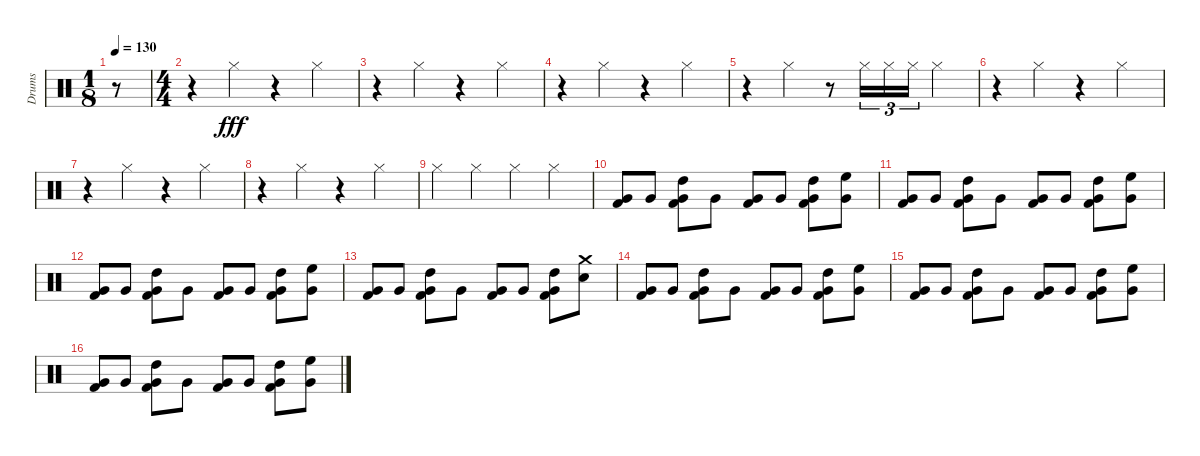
\track ("Drums" "Drums") {instrument percussion}
\staff {score}
\articulation defaults
\ts (1 8)
\tempo 130
\clef neutral
\ks c
r.8{dy fff} |
\ts (4 4)
r.4 "Hi-Hat (closed)".4 r.4 "Hi-Hat (closed)".4 |
r.4 "Hi-Hat (closed)".4 r.4 "Hi-Hat (closed)".4 |
r.4 "Hi-Hat (closed)".4 r.4 "Hi-Hat (closed)".4 |
r.4 "Hi-Hat (closed)".4 r.8 "Hi-Hat (closed)".16{tu (3 2)} "Hi-Hat (closed)".16{tu (3 2)} "Hi-Hat (closed)".16{tu (3 2)} "Hi-Hat (closed)".4 |
r.4 "Hi-Hat (closed)".4 r.4 "Hi-Hat (closed)".4 |
r.4 "Hi-Hat (closed)".4 r.4 "Hi-Hat (closed)".4 |
r.4 "Hi-Hat (closed)".4 r.4 "Hi-Hat (closed)".4 |
"Hi-Hat (closed)".4 "Hi-Hat (closed)".4 "Hi-Hat (closed)".4 "Hi-Hat (closed)".4 |
("Very Low Tom (hit)" "Kick (hit) 2").8 "Very Low Tom (hit)".8 ("High Tom (hit)" "Very Low Tom (hit)" "Kick (hit) 2").8 "Very Low Tom (hit)".8 ("Very Low Tom (hit)" "Kick (hit) 2").8 "Very Low Tom (hit)".8 ("High Tom (hit)" "Very Low Tom (hit)" "Kick (hit) 2").8 ("High Floor Tom (hit)" "Very Low Tom (hit)").8 |
("Very Low Tom (hit)" "Kick (hit) 2").8 "Very Low Tom (hit)".8 ("High Tom (hit)" "Very Low Tom (hit)" "Kick (hit) 2").8 "Very Low Tom (hit)".8 ("Very Low Tom (hit)" "Kick (hit) 2").8 "Very Low Tom (hit)".8 ("High Tom (hit)" "Very Low Tom (hit)" "Kick (hit) 2").8 ("High Floor Tom (hit)" "Very Low Tom (hit)").8 |
("Very Low Tom (hit)" "Kick (hit) 2").8 "Very Low Tom (hit)".8 ("High Tom (hit)" "Very Low Tom (hit)" "Kick (hit) 2").8 "Very Low Tom (hit)".8 ("Very Low Tom (hit)" "Kick (hit) 2").8 "Very Low Tom (hit)".8 ("High Tom (hit)" "Very Low Tom (hit)" "Kick (hit) 2").8 ("High Floor Tom (hit)" "Very Low Tom (hit)").8 |
("Very Low Tom (hit)" "Kick (hit) 2").8 "Very Low Tom (hit)".8 ("High Tom (hit)" "Very Low Tom (hit)" "Kick (hit) 2").8 "Very Low Tom (hit)".8 ("Very Low Tom (hit)" "Kick (hit) 2").8 "Very Low Tom (hit)".8 ("High Tom (hit)" "Very Low Tom (hit)" "Kick (hit) 2").8 ("Snare (hit) 2" "Crash medium (hit)").8 |
("Very Low Tom (hit)" "Kick (hit) 2").8 "Very Low Tom (hit)".8 ("High Tom (hit)" "Very Low Tom (hit)" "Kick (hit) 2").8 "Very Low Tom (hit)".8 ("Very Low Tom (hit)" "Kick (hit) 2").8 "Very Low Tom (hit)".8 ("High Tom (hit)" "Very Low Tom (hit)" "Kick (hit) 2").8 ("High Floor Tom (hit)" "Very Low Tom (hit)").8 |
("Very Low Tom (hit)" "Kick (hit) 2").8 "Very Low Tom (hit)".8 ("High Tom (hit)" "Very Low Tom (hit)" "Kick (hit) 2").8 "Very Low Tom (hit)".8 ("Very Low Tom (hit)" "Kick (hit) 2").8 "Very Low Tom (hit)".8 ("High Tom (hit)" "Very Low Tom (hit)" "Kick (hit) 2").8 ("High Floor Tom (hit)" "Very Low Tom (hit)").8 |
("Very Low Tom (hit)" "Kick (hit) 2").8 "Very Low Tom (hit)".8 ("High Tom (hit)" "Very Low Tom (hit)" "Kick (hit) 2").8 "Very Low Tom (hit)".8 ("Very Low Tom (hit)" "Kick (hit) 2").8 "Very Low Tom (hit)".8 ("High Tom (hit)" "Very Low Tom (hit)" "Kick (hit) 2").8 ("High Floor Tom (hit)" "Very Low Tom (hit)").8
